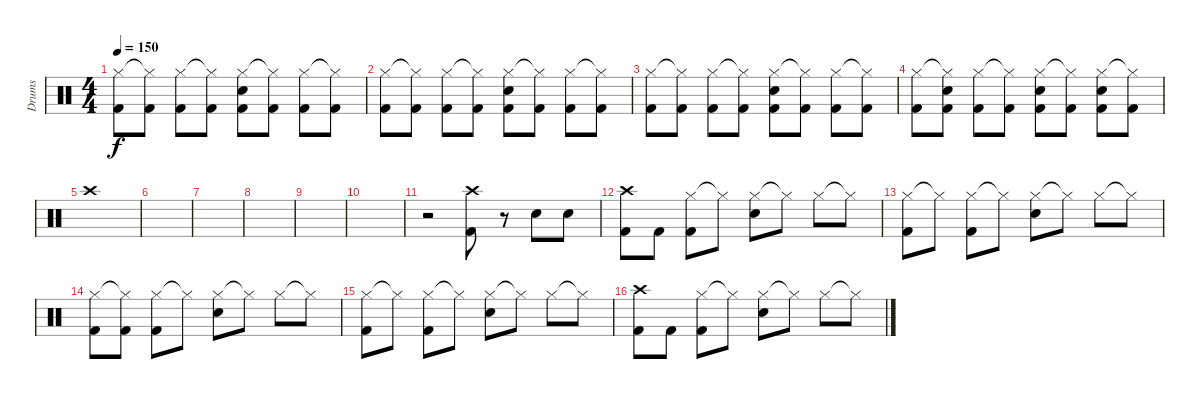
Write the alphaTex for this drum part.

\track ("Drums" "Drums") {instrument percussion}
\staff {score}
\articulation defaults
\ts (4 4)
\tempo 150
\clef neutral
\ks c
("Hi-Hat (closed)" "Kick (hit) 2").8{dy f} ("Hi-Hat (closed)"{t} "Kick (hit) 2").8 ("Hi-Hat (closed)" "Kick (hit) 2").8 ("Hi-Hat (closed)"{t} "Kick (hit) 2").8 ("Hi-Hat (closed)" "Kick (hit) 2" "Snare (hit) 2").8 ("Hi-Hat (closed)"{t} "Kick (hit) 2").8 ("Hi-Hat (closed)" "Kick (hit) 2").8 ("Hi-Hat (closed)"{t} "Kick (hit) 2").8 |
("Hi-Hat (closed)" "Kick (hit) 2").8 ("Hi-Hat (closed)"{t} "Kick (hit) 2").8 ("Hi-Hat (closed)" "Kick (hit) 2").8 ("Hi-Hat (closed)"{t} "Kick (hit) 2").8 ("Hi-Hat (closed)" "Kick (hit) 2" "Snare (hit) 2").8 ("Hi-Hat (closed)"{t} "Kick (hit) 2").8 ("Hi-Hat (closed)" "Kick (hit) 2").8 ("Hi-Hat (closed)"{t} "Kick (hit) 2").8 |
("Hi-Hat (closed)" "Kick (hit) 2").8 ("Hi-Hat (closed)"{t} "Kick (hit) 2").8 ("Hi-Hat (closed)" "Kick (hit) 2").8 ("Hi-Hat (closed)"{t} "Kick (hit) 2").8 ("Hi-Hat (closed)" "Kick (hit) 2" "Snare (hit) 2").8 ("Hi-Hat (closed)"{t} "Kick (hit) 2").8 ("Hi-Hat (closed)" "Kick (hit) 2").8 ("Hi-Hat (closed)"{t} "Kick (hit) 2").8 |
("Hi-Hat (closed)" "Kick (hit) 2").8 ("Hi-Hat (closed)"{t} "Kick (hit) 2" "Snare (hit) 2").8 ("Hi-Hat (closed)" "Kick (hit) 2").8 ("Hi-Hat (closed)"{t} "Kick (hit) 2").8 ("Hi-Hat (closed)" "Kick (hit) 2" "Snare (hit) 2").8 ("Hi-Hat (closed)"{t} "Kick (hit) 2").8 ("Hi-Hat (closed)" "Kick (hit) 2" "Snare (hit) 2").8 ("Hi-Hat (closed)"{t} "Kick (hit) 2").8 |
"Crash high (hit)".1 |
|
|
|
|
|
r.2 ("Kick (hit) 2" "Crash high (hit)").8 r.8 "Snare (hit) 2".8 "Snare (hit) 2".8 |
("Kick (hit) 2" "Crash high (hit)").8 "Kick (hit) 2".8 ("Hi-Hat (closed)" "Kick (hit) 2").8 "Hi-Hat (closed)"{t}.8 ("Hi-Hat (closed)" "Snare (hit) 2").8 "Hi-Hat (closed)"{t}.8 "Hi-Hat (closed)".8 "Hi-Hat (closed)"{t}.8 |
("Hi-Hat (closed)" "Kick (hit) 2").8 "Hi-Hat (closed)"{t}.8 ("Hi-Hat (closed)" "Kick (hit) 2").8 "Hi-Hat (closed)"{t}.8 ("Hi-Hat (closed)" "Snare (hit) 2").8 "Hi-Hat (closed)"{t}.8 "Hi-Hat (closed)".8 "Hi-Hat (closed)"{t}.8 |
("Hi-Hat (closed)" "Kick (hit) 2").8 ("Hi-Hat (closed)"{t} "Kick (hit) 2").8 ("Hi-Hat (closed)" "Kick (hit) 2").8 "Hi-Hat (closed)"{t}.8 ("Hi-Hat (closed)" "Snare (hit) 2").8 "Hi-Hat (closed)"{t}.8 "Hi-Hat (closed)".8 "Hi-Hat (closed)"{t}.8 |
("Hi-Hat (closed)" "Kick (hit) 2").8 "Hi-Hat (closed)"{t}.8 ("Hi-Hat (closed)" "Kick (hit) 2").8 "Hi-Hat (closed)"{t}.8 ("Hi-Hat (closed)" "Snare (hit) 2").8 "Hi-Hat (closed)"{t}.8 "Hi-Hat (closed)".8 "Hi-Hat (closed)"{t}.8 |
("Kick (hit) 2" "Crash high (hit)").8 "Kick (hit) 2".8 ("Hi-Hat (closed)" "Kick (hit) 2").8 "Hi-Hat (closed)"{t}.8 ("Hi-Hat (closed)" "Snare (hit) 2").8 "Hi-Hat (closed)"{t}.8 "Hi-Hat (closed)".8 "Hi-Hat (closed)"{t}.8
